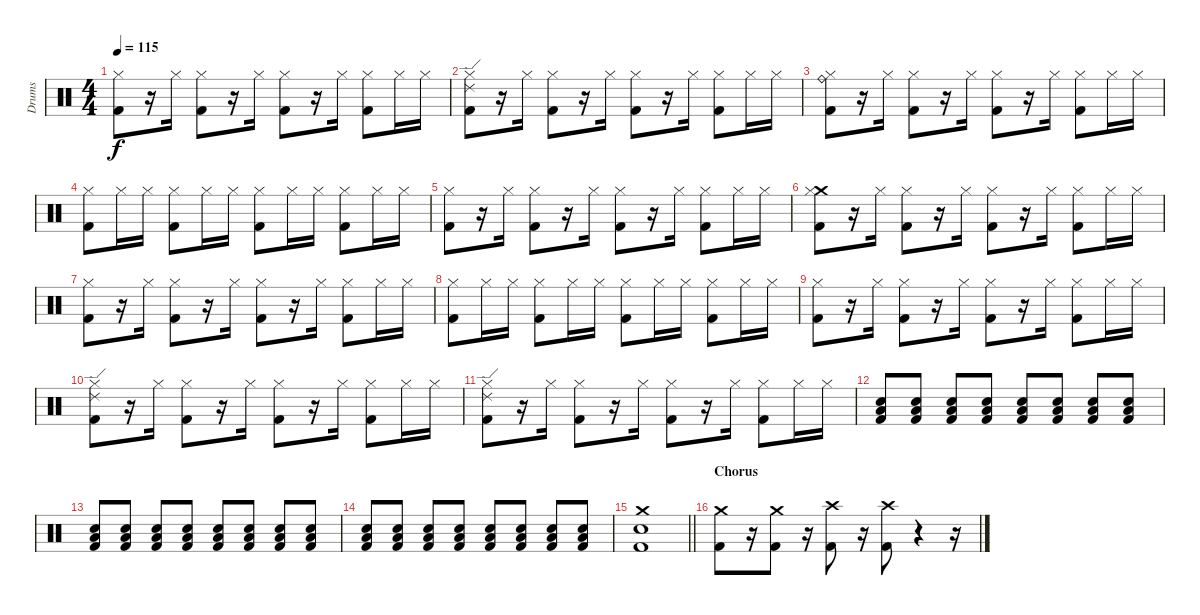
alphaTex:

\track ("Drums" "Drums") {instrument percussion}
\staff {score}
\articulation defaults
\ts (4 4)
\tempo 115
\clef neutral
\ks c
("Hi-Hat (closed)" "Kick (hit) 2").8{dy f} r.16 "Hi-Hat (closed)".16 ("Hi-Hat (closed)" "Kick (hit) 2").8 r.16 "Hi-Hat (closed)".16 ("Hi-Hat (closed)" "Kick (hit) 2").8 r.16 "Hi-Hat (closed)".16 ("Hi-Hat (closed)" "Kick (hit) 2").8 "Hi-Hat (closed)".16 "Hi-Hat (closed)".16 |
("Ride (edge) 2" "Hi-Hat (closed)" "Kick (hit) 2").8 r.16 "Hi-Hat (closed)".16 ("Hi-Hat (closed)" "Kick (hit) 2").8 r.16 "Hi-Hat (closed)".16 ("Hi-Hat (closed)" "Kick (hit) 2").8 r.16 "Hi-Hat (closed)".16 ("Hi-Hat (closed)" "Kick (hit) 2").8 "Hi-Hat (closed)".16 "Hi-Hat (closed)".16 |
("Ride (bell)" "Hi-Hat (closed)" "Kick (hit) 2").8 r.16 "Hi-Hat (closed)".16 ("Hi-Hat (closed)" "Kick (hit) 2").8 r.16 "Hi-Hat (closed)".16 ("Hi-Hat (closed)" "Kick (hit) 2").8 r.16 "Hi-Hat (closed)".16 ("Hi-Hat (closed)" "Kick (hit) 2").8 "Hi-Hat (closed)".16 "Hi-Hat (closed)".16 |
("Hi-Hat (closed)" "Kick (hit) 2").8 "Hi-Hat (closed)".16 "Hi-Hat (closed)".16 ("Hi-Hat (closed)" "Kick (hit) 2").8 "Hi-Hat (closed)".16 "Hi-Hat (closed)".16 ("Hi-Hat (closed)" "Kick (hit) 2").8 "Hi-Hat (closed)".16 "Hi-Hat (closed)".16 ("Hi-Hat (closed)" "Kick (hit) 2").8 "Hi-Hat (closed)".16 "Hi-Hat (closed)".16 |
("Hi-Hat (closed)" "Kick (hit) 2").8 r.16 "Hi-Hat (closed)".16 ("Hi-Hat (closed)" "Kick (hit) 2").8 r.16 "Hi-Hat (closed)".16 ("Hi-Hat (closed)" "Kick (hit) 2").8 r.16 "Hi-Hat (closed)".16 ("Hi-Hat (closed)" "Kick (hit) 2").8 "Hi-Hat (closed)".16 "Hi-Hat (closed)".16 |
("Crash medium (hit)" "Hi-Hat (closed)" "Kick (hit) 2").8 r.16 "Hi-Hat (closed)".16 ("Hi-Hat (closed)" "Kick (hit) 2").8 r.16 "Hi-Hat (closed)".16 ("Hi-Hat (closed)" "Kick (hit) 2").8 r.16 "Hi-Hat (closed)".16 ("Hi-Hat (closed)" "Kick (hit) 2").8 "Hi-Hat (closed)".16 "Hi-Hat (closed)".16 |
("Hi-Hat (closed)" "Kick (hit) 2").8 r.16 "Hi-Hat (closed)".16 ("Hi-Hat (closed)" "Kick (hit) 2").8 r.16 "Hi-Hat (closed)".16 ("Hi-Hat (closed)" "Kick (hit) 2").8 r.16 "Hi-Hat (closed)".16 ("Hi-Hat (closed)" "Kick (hit) 2").8 "Hi-Hat (closed)".16 "Hi-Hat (closed)".16 |
("Hi-Hat (closed)" "Kick (hit) 2").8 "Hi-Hat (closed)".16 "Hi-Hat (closed)".16 ("Hi-Hat (closed)" "Kick (hit) 2").8 "Hi-Hat (closed)".16 "Hi-Hat (closed)".16 ("Hi-Hat (closed)" "Kick (hit) 2").8 "Hi-Hat (closed)".16 "Hi-Hat (closed)".16 ("Hi-Hat (closed)" "Kick (hit) 2").8 "Hi-Hat (closed)".16 "Hi-Hat (closed)".16 |
("Hi-Hat (closed)" "Kick (hit) 2").8 r.16 "Hi-Hat (closed)".16 ("Hi-Hat (closed)" "Kick (hit) 2").8 r.16 "Hi-Hat (closed)".16 ("Hi-Hat (closed)" "Kick (hit) 2").8 r.16 "Hi-Hat (closed)".16 ("Hi-Hat (closed)" "Kick (hit) 2").8 "Hi-Hat (closed)".16 "Hi-Hat (closed)".16 |
("Ride (edge) 2" "Hi-Hat (closed)" "Kick (hit) 2").8 r.16 "Hi-Hat (closed)".16 ("Hi-Hat (closed)" "Kick (hit) 2").8 r.16 "Hi-Hat (closed)".16 ("Hi-Hat (closed)" "Kick (hit) 2").8 r.16 "Hi-Hat (closed)".16 ("Hi-Hat (closed)" "Kick (hit) 2").8 "Hi-Hat (closed)".16 "Hi-Hat (closed)".16 |
("Ride (edge) 2" "Hi-Hat (closed)" "Kick (hit) 2").8 r.16 "Hi-Hat (closed)".16 ("Hi-Hat (closed)" "Kick (hit) 2").8 r.16 "Hi-Hat (closed)".16 ("Hi-Hat (closed)" "Kick (hit) 2").8 r.16 "Hi-Hat (closed)".16 ("Hi-Hat (closed)" "Kick (hit) 2").8 "Hi-Hat (closed)".16 "Hi-Hat (closed)".16 |
("Low Floor Tom (hit)" "Electric Snare (hit)" "Kick (hit) 2").8{volume 16} ("Low Floor Tom (hit)" "Electric Snare (hit)" "Kick (hit) 2").8 ("Low Floor Tom (hit)" "Electric Snare (hit)" "Kick (hit) 2").8 ("Low Floor Tom (hit)" "Electric Snare (hit)" "Kick (hit) 2").8 ("Low Floor Tom (hit)" "Electric Snare (hit)" "Kick (hit) 2").8 ("Low Floor Tom (hit)" "Electric Snare (hit)" "Kick (hit) 2").8 ("Low Floor Tom (hit)" "Electric Snare (hit)" "Kick (hit) 2").8 ("Low Floor Tom (hit)" "Electric Snare (hit)" "Kick (hit) 2").8 |
("Low Floor Tom (hit)" "Electric Snare (hit)" "Kick (hit) 2").8{volume 16} ("Low Floor Tom (hit)" "Electric Snare (hit)" "Kick (hit) 2").8 ("Low Floor Tom (hit)" "Electric Snare (hit)" "Kick (hit) 2").8 ("Low Floor Tom (hit)" "Electric Snare (hit)" "Kick (hit) 2").8 ("Low Floor Tom (hit)" "Electric Snare (hit)" "Kick (hit) 2").8 ("Low Floor Tom (hit)" "Electric Snare (hit)" "Kick (hit) 2").8 ("Low Floor Tom (hit)" "Electric Snare (hit)" "Kick (hit) 2").8 ("Low Floor Tom (hit)" "Electric Snare (hit)" "Kick (hit) 2").8 |
("Low Floor Tom (hit)" "Electric Snare (hit)" "Kick (hit) 2").8{volume 16} ("Low Floor Tom (hit)" "Electric Snare (hit)" "Kick (hit) 2").8 ("Low Floor Tom (hit)" "Electric Snare (hit)" "Kick (hit) 2").8 ("Low Floor Tom (hit)" "Electric Snare (hit)" "Kick (hit) 2").8 ("Low Floor Tom (hit)" "Electric Snare (hit)" "Kick (hit) 2").8 ("Low Floor Tom (hit)" "Electric Snare (hit)" "Kick (hit) 2").8 ("Low Floor Tom (hit)" "Electric Snare (hit)" "Kick (hit) 2").8 ("Low Floor Tom (hit)" "Electric Snare (hit)" "Kick (hit) 2").8 |
\barLineRight lightlight
("Crash medium (hit)" "Electric Snare (hit)" "Kick (hit) 2").1 |
\section ("" "Chorus")
("Crash medium (hit)" "Kick (hit) 2").8 r.16 ("Crash medium (hit)" "Kick (hit) 2").8 r.16 ("Crash high (hit)" "Kick (hit) 2").8 r.16 ("Crash high (hit)" "Kick (hit) 2").8 r.4 r.16
